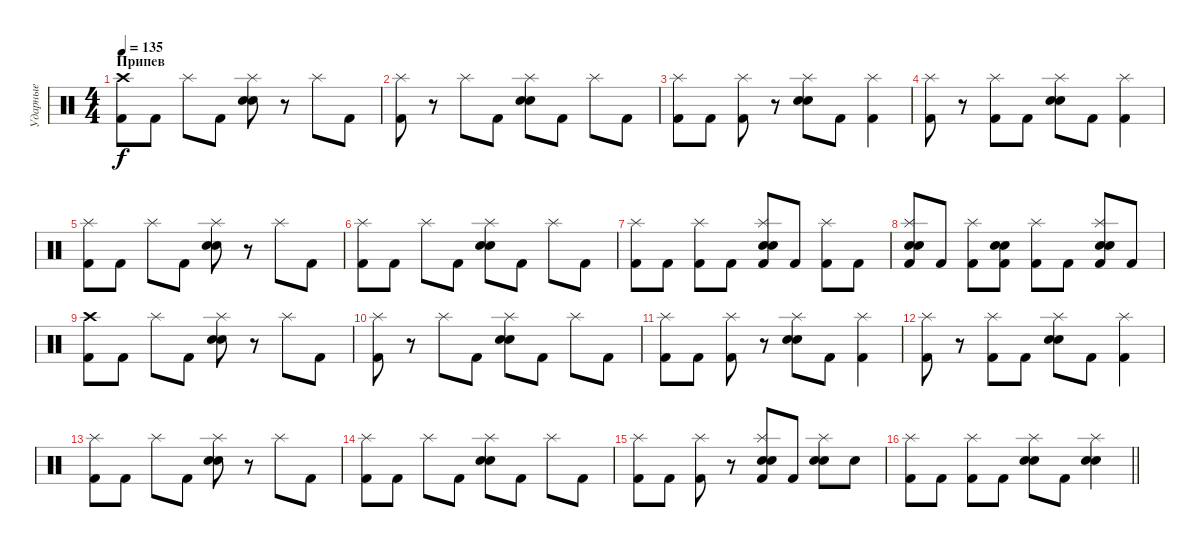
\track ("Ударные" "Ударные") {instrument percussion}
\staff {score}
\articulation defaults
\ts (4 4)
\section ("" "Припев")
\tempo 135
\clef neutral
\ks c
("Crash high (hit)" "Kick (hit) 2").8{dy f} "Kick (hit) 2".8 "Splash (hit)".8 "Kick (hit) 2".8 ("Splash (hit)" "Electric Snare (hit)" "Snare (hit) 2").8 r.8 "Splash (hit)".8 "Kick (hit) 2".8 |
("Splash (hit)" "Kick (hit) 2").8 r.8 "Splash (hit)".8 "Kick (hit) 2".8 ("Splash (hit)" "Electric Snare (hit)" "Snare (hit) 2").8 "Kick (hit) 2".8 "Splash (hit)".8 "Kick (hit) 2".8 |
("Splash (hit)" "Kick (hit) 2").8 "Kick (hit) 2".8 ("Splash (hit)" "Kick (hit) 2").8 r.8 ("Splash (hit)" "Electric Snare (hit)" "Snare (hit) 2").8 "Kick (hit) 2".8 ("Splash (hit)" "Kick (hit) 2").4 |
("Splash (hit)" "Kick (hit) 2").8 r.8 ("Splash (hit)" "Kick (hit) 2").8 "Kick (hit) 2".8 ("Splash (hit)" "Electric Snare (hit)" "Snare (hit) 2").8 "Kick (hit) 2".8 ("Splash (hit)" "Kick (hit) 2").4 |
("Splash (hit)" "Kick (hit) 2").8 "Kick (hit) 2".8 "Splash (hit)".8 "Kick (hit) 2".8 ("Splash (hit)" "Electric Snare (hit)" "Snare (hit) 2").8 r.8 "Splash (hit)".8 "Kick (hit) 2".8 |
("Splash (hit)" "Kick (hit) 2").8 "Kick (hit) 2".8 "Splash (hit)".8 "Kick (hit) 2".8 ("Splash (hit)" "Electric Snare (hit)" "Snare (hit) 2").8 "Kick (hit) 2".8 "Splash (hit)".8 "Kick (hit) 2".8 |
("Splash (hit)" "Kick (hit) 2").8 "Kick (hit) 2".8 ("Splash (hit)" "Kick (hit) 2").8 "Kick (hit) 2".8 ("Splash (hit)" "Electric Snare (hit)" "Snare (hit) 2" "Kick (hit) 2").8 "Kick (hit) 2".8 ("Splash (hit)" "Kick (hit) 2").8 "Kick (hit) 2".8 |
("Splash (hit)" "Electric Snare (hit)" "Snare (hit) 2" "Kick (hit) 2").8 "Kick (hit) 2".8 ("Splash (hit)" "Kick (hit) 2").8 ("Electric Snare (hit)" "Snare (hit) 2" "Kick (hit) 2").8 ("Splash (hit)" "Kick (hit) 2").8 "Kick (hit) 2".8 ("Splash (hit)" "Electric Snare (hit)" "Snare (hit) 2" "Kick (hit) 2").8 "Kick (hit) 2".8 |
("Crash high (hit)" "Kick (hit) 2").8 "Kick (hit) 2".8 "Splash (hit)".8 "Kick (hit) 2".8 ("Splash (hit)" "Electric Snare (hit)" "Snare (hit) 2").8 r.8 "Splash (hit)".8 "Kick (hit) 2".8 |
("Splash (hit)" "Kick (hit) 2").8 r.8 "Splash (hit)".8 "Kick (hit) 2".8 ("Splash (hit)" "Electric Snare (hit)" "Snare (hit) 2").8 "Kick (hit) 2".8 "Splash (hit)".8 "Kick (hit) 2".8 |
("Splash (hit)" "Kick (hit) 2").8 "Kick (hit) 2".8 ("Splash (hit)" "Kick (hit) 2").8 r.8 ("Splash (hit)" "Electric Snare (hit)" "Snare (hit) 2").8 "Kick (hit) 2".8 ("Splash (hit)" "Kick (hit) 2").4 |
("Splash (hit)" "Kick (hit) 2").8 r.8 ("Splash (hit)" "Kick (hit) 2").8 "Kick (hit) 2".8 ("Splash (hit)" "Electric Snare (hit)" "Snare (hit) 2").8 "Kick (hit) 2".8 ("Splash (hit)" "Kick (hit) 2").4 |
("Splash (hit)" "Kick (hit) 2").8 "Kick (hit) 2".8 "Splash (hit)".8 "Kick (hit) 2".8 ("Splash (hit)" "Electric Snare (hit)" "Snare (hit) 2").8 r.8 "Splash (hit)".8 "Kick (hit) 2".8 |
("Splash (hit)" "Kick (hit) 2").8 "Kick (hit) 2".8 "Splash (hit)".8 "Kick (hit) 2".8 ("Splash (hit)" "Electric Snare (hit)" "Snare (hit) 2").8 "Kick (hit) 2".8 "Splash (hit)".8 "Kick (hit) 2".8 |
("Splash (hit)" "Kick (hit) 2").8 "Kick (hit) 2".8 ("Splash (hit)" "Kick (hit) 2").8 r.8 ("Splash (hit)" "Electric Snare (hit)" "Snare (hit) 2" "Kick (hit) 2").8 "Kick (hit) 2".8 ("Splash (hit)" "Electric Snare (hit)" "Snare (hit) 2").8 "Electric Snare (hit)".8 |
\barLineRight lightlight
("Splash (hit)" "Kick (hit) 2").8 "Kick (hit) 2".8 ("Splash (hit)" "Kick (hit) 2").8 "Kick (hit) 2".8 ("Splash (hit)" "Electric Snare (hit)" "Snare (hit) 2").8 "Kick (hit) 2".8 ("Splash (hit)" "Electric Snare (hit)" "Snare (hit) 2").4
